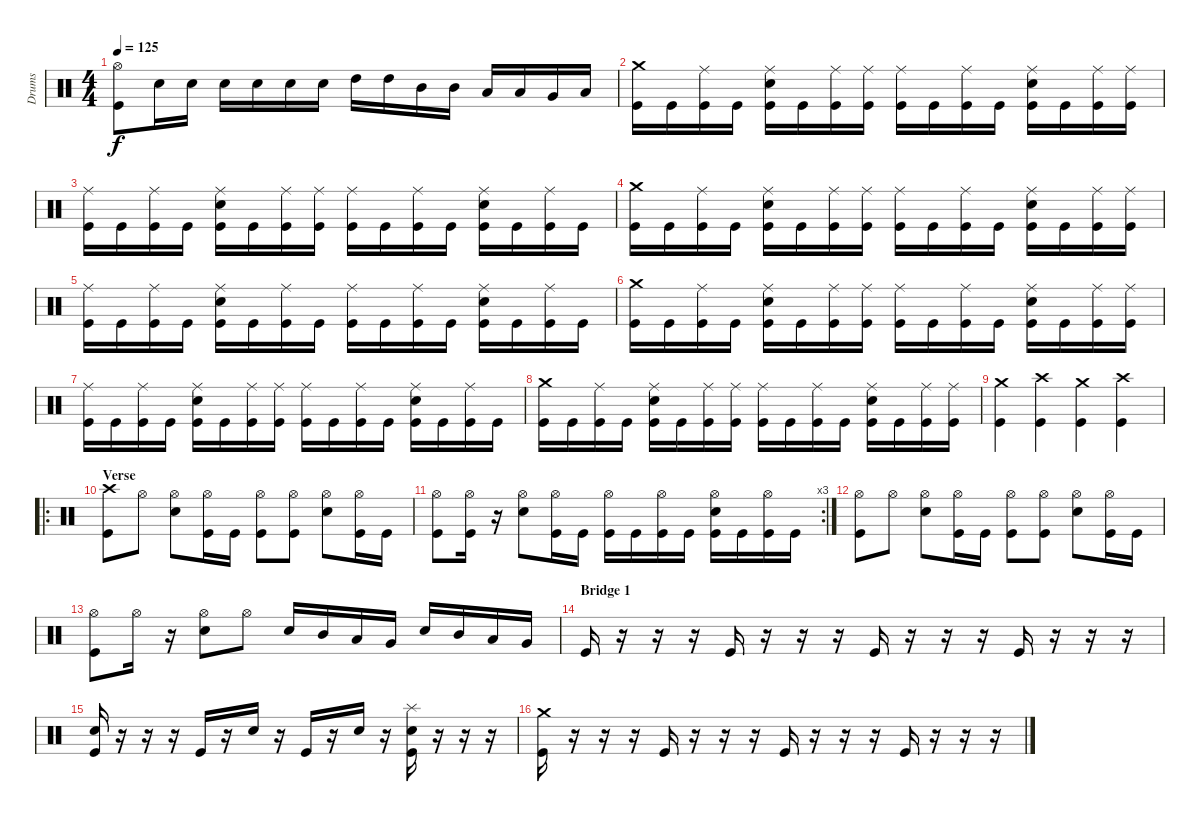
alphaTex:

\track ("Drums" "Drums") {instrument percussion}
\staff {score}
\articulation defaults
\ts (4 4)
\tempo 125
\clef neutral
\ks c
("Hi-Hat (open)" "Kick (hit)").8{dy f} "Electric Snare (hit)".16 "Electric Snare (hit)".16 "Electric Snare (hit)".16 "Electric Snare (hit)".16 "Electric Snare (hit)".16 "Electric Snare (hit)".16 "High Tom (hit)".16 "High Tom (hit)".16 "Mid Tom (hit)".16 "Mid Tom (hit)".16 "Low Tom (hit)".16 "Low Tom (hit)".16 "Very Low Tom (hit)".16 "Low Floor Tom (hit)".16 |
("Crash medium (hit)" "Kick (hit)").16 "Kick (hit)".16 ("Ride (middle)" "Kick (hit)").16 "Kick (hit)".16 ("Ride (middle)" "Electric Snare (hit)" "Kick (hit)").16 "Kick (hit)".16 ("Ride (middle)" "Kick (hit)").16 ("Ride (middle)" "Kick (hit)").16 ("Ride (middle)" "Kick (hit)").16 "Kick (hit)".16 ("Ride (middle)" "Kick (hit)").16 "Kick (hit)".16 ("Ride (middle)" "Electric Snare (hit)" "Kick (hit)").16 "Kick (hit)".16 ("Ride (middle)" "Kick (hit)").16 ("Ride (middle)" "Kick (hit)").16 |
("Ride (middle)" "Kick (hit)").16 "Kick (hit)".16 ("Ride (middle)" "Kick (hit)").16 "Kick (hit)".16 ("Ride (middle)" "Electric Snare (hit)" "Kick (hit)").16 "Kick (hit)".16 ("Ride (middle)" "Kick (hit)").16 ("Ride (middle)" "Kick (hit)").16 ("Ride (middle)" "Kick (hit)").16 "Kick (hit)".16 ("Ride (middle)" "Kick (hit)").16 "Kick (hit)".16 ("Ride (middle)" "Electric Snare (hit)" "Kick (hit)").16 "Kick (hit)".16 ("Ride (middle)" "Kick (hit)").16 "Kick (hit)".16 |
("Crash medium (hit)" "Kick (hit)").16 "Kick (hit)".16 ("Ride (middle)" "Kick (hit)").16 "Kick (hit)".16 ("Ride (middle)" "Electric Snare (hit)" "Kick (hit)").16 "Kick (hit)".16 ("Ride (middle)" "Kick (hit)").16 ("Ride (middle)" "Kick (hit)").16 ("Ride (middle)" "Kick (hit)").16 "Kick (hit)".16 ("Ride (middle)" "Kick (hit)").16 "Kick (hit)".16 ("Ride (middle)" "Electric Snare (hit)" "Kick (hit)").16 "Kick (hit)".16 ("Ride (middle)" "Kick (hit)").16 ("Ride (middle)" "Kick (hit)").16 |
("Ride (middle)" "Kick (hit)").16 "Kick (hit)".16 ("Ride (middle)" "Kick (hit)").16 "Kick (hit)".16 ("Ride (middle)" "Electric Snare (hit)" "Kick (hit)").16 "Kick (hit)".16 ("Ride (middle)" "Kick (hit)").16 "Kick (hit)".16 ("Ride (middle)" "Kick (hit)").16 "Kick (hit)".16 ("Ride (middle)" "Kick (hit)").16 "Kick (hit)".16 ("Ride (middle)" "Electric Snare (hit)" "Kick (hit)").16 "Kick (hit)".16 ("Ride (middle)" "Kick (hit)").16 "Kick (hit)".16 |
("Crash medium (hit)" "Kick (hit)").16 "Kick (hit)".16 ("Ride (middle)" "Kick (hit)").16 "Kick (hit)".16 ("Ride (middle)" "Electric Snare (hit)" "Kick (hit)").16 "Kick (hit)".16 ("Ride (middle)" "Kick (hit)").16 ("Ride (middle)" "Kick (hit)").16 ("Ride (middle)" "Kick (hit)").16 "Kick (hit)".16 ("Ride (middle)" "Kick (hit)").16 "Kick (hit)".16 ("Ride (middle)" "Electric Snare (hit)" "Kick (hit)").16 "Kick (hit)".16 ("Ride (middle)" "Kick (hit)").16 ("Ride (middle)" "Kick (hit)").16 |
("Ride (middle)" "Kick (hit)").16 "Kick (hit)".16 ("Ride (middle)" "Kick (hit)").16 "Kick (hit)".16 ("Ride (middle)" "Electric Snare (hit)" "Kick (hit)").16 "Kick (hit)".16 ("Ride (middle)" "Kick (hit)").16 ("Ride (middle)" "Kick (hit)").16 ("Ride (middle)" "Kick (hit)").16 "Kick (hit)".16 ("Ride (middle)" "Kick (hit)").16 "Kick (hit)".16 ("Ride (middle)" "Electric Snare (hit)" "Kick (hit)").16 "Kick (hit)".16 ("Ride (middle)" "Kick (hit)").16 "Kick (hit)".16 |
("Crash medium (hit)" "Kick (hit)").16 "Kick (hit)".16 ("Ride (middle)" "Kick (hit)").16 "Kick (hit)".16 ("Ride (middle)" "Electric Snare (hit)" "Kick (hit)").16 "Kick (hit)".16 ("Ride (middle)" "Kick (hit)").16 ("Ride (middle)" "Kick (hit)").16 ("Ride (middle)" "Kick (hit)").16 "Kick (hit)".16 ("Ride (middle)" "Kick (hit)").16 "Kick (hit)".16 ("Ride (middle)" "Electric Snare (hit)" "Kick (hit)").16 "Kick (hit)".16 ("Ride (middle)" "Kick (hit)").16 ("Ride (middle)" "Kick (hit)").16 |
("Crash medium (hit)" "Kick (hit)").4 ("Crash high (hit)" "Kick (hit)").4 ("Crash medium (hit)" "Kick (hit)").4 ("Crash high (hit)" "Kick (hit)").4 |
\ro
\section ("" "Verse")
("Crash high (hit)" "Kick (hit)").8 "Hi-Hat (open)".8 ("Hi-Hat (open)" "Electric Snare (hit)").8 ("Hi-Hat (open)" "Kick (hit)").16 "Kick (hit)".16 ("Hi-Hat (open)" "Kick (hit)").8 ("Hi-Hat (open)" "Kick (hit)").8 ("Hi-Hat (open)" "Electric Snare (hit)").8 ("Hi-Hat (open)" "Kick (hit)").16 "Kick (hit)".16 |
\rc 3
("Hi-Hat (open)" "Kick (hit)").8 ("Hi-Hat (open)" "Kick (hit)").16 r.16 ("Hi-Hat (open)" "Electric Snare (hit)").8 ("Hi-Hat (open)" "Kick (hit)").16 "Kick (hit)".16 ("Hi-Hat (open)" "Kick (hit)").16 "Kick (hit)".16 ("Hi-Hat (open)" "Kick (hit)").16 "Kick (hit)".16 ("Hi-Hat (open)" "Electric Snare (hit)" "Kick (hit)").16 "Kick (hit)".16 ("Hi-Hat (open)" "Kick (hit)").16 "Kick (hit)".16 |
("Hi-Hat (open)" "Kick (hit)").8 "Hi-Hat (open)".8 ("Hi-Hat (open)" "Electric Snare (hit)").8 ("Hi-Hat (open)" "Kick (hit)").16 "Kick (hit)".16 ("Hi-Hat (open)" "Kick (hit)").8 ("Hi-Hat (open)" "Kick (hit)").8 ("Hi-Hat (open)" "Electric Snare (hit)").8 ("Hi-Hat (open)" "Kick (hit)").16 "Kick (hit)".16 |
("Hi-Hat (open)" "Kick (hit)").8 "Hi-Hat (open)".16 r.16 ("Hi-Hat (open)" "Electric Snare (hit)").8 "Hi-Hat (open)".8 "Electric Snare (hit)".16 "Mid Tom (hit)".16 "Low Tom (hit)".16 "Very Low Tom (hit)".16 "Electric Snare (hit)".16 "Mid Tom (hit)".16 "Low Tom (hit)".16 "Very Low Tom (hit)".16 |
\section ("" "Bridge 1")
"Kick (hit)".16 r.16 r.16 r.16 "Kick (hit)".16 r.16 r.16 r.16 "Kick (hit)".16 r.16 r.16 r.16 "Kick (hit)".16 r.16 r.16 r.16 |
("Electric Snare (hit)" "Kick (hit)").16 r.16 r.16 r.16 "Kick (hit)".16 r.16 "Electric Snare (hit)".16 r.16 "Kick (hit)".16 r.16 "Electric Snare (hit)".16 r.16 ("Splash (hit)" "Electric Snare (hit)" "Kick (hit)").16 r.16 r.16 r.16 |
("Crash medium (hit)" "Kick (hit)").16 r.16 r.16 r.16 "Kick (hit)".16 r.16 r.16 r.16 "Kick (hit)".16 r.16 r.16 r.16 "Kick (hit)".16 r.16 r.16 r.16
